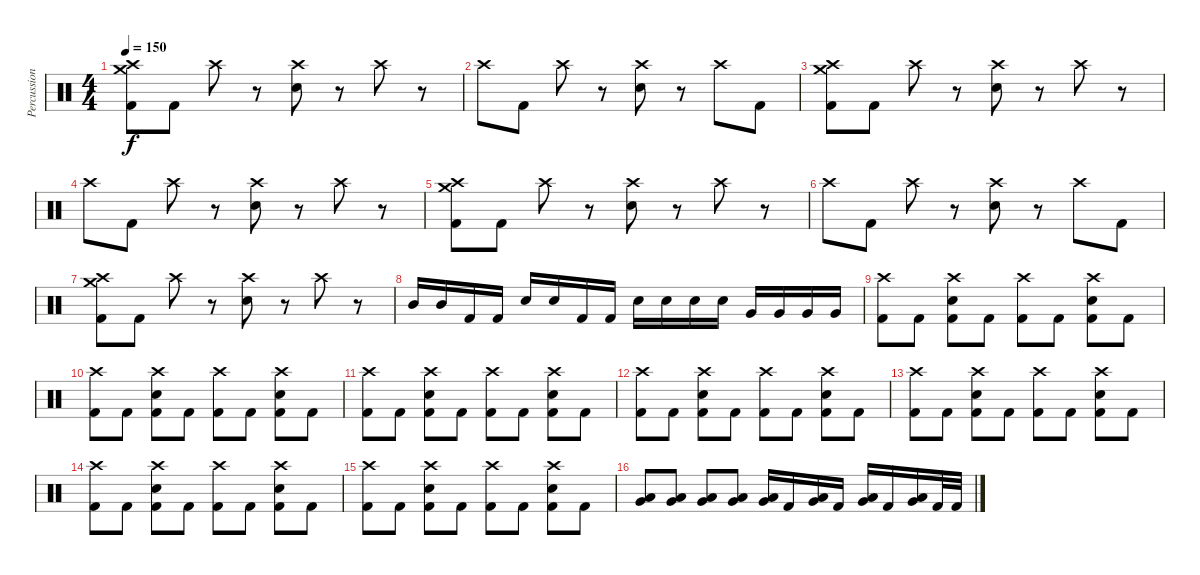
\track ("Percussion" "Percussion") {instrument percussion}
\staff {score}
\articulation defaults
\ts (4 4)
\section ("" "")
\tempo 150
\clef neutral
\ks c
("Crash high (hit)" "Crash medium (hit)" "Kick (hit) 2").8{dy f} "Kick (hit) 2".8 "Crash high (hit)".8 r.8 ("Crash high (hit)" "Snare (hit) 2").8 r.8 "Crash high (hit)".8 r.8 |
"Crash high (hit)".8 "Kick (hit) 2".8 "Crash high (hit)".8 r.8 ("Crash high (hit)" "Snare (hit) 2").8 r.8 "Crash high (hit)".8 "Kick (hit) 2".8 |
("Crash high (hit)" "Crash medium (hit)" "Kick (hit) 2").8 "Kick (hit) 2".8 "Crash high (hit)".8 r.8 ("Crash high (hit)" "Snare (hit) 2").8 r.8 "Crash high (hit)".8 r.8 |
"Crash high (hit)".8 "Kick (hit) 2".8 "Crash high (hit)".8 r.8 ("Crash high (hit)" "Snare (hit) 2").8 r.8 "Crash high (hit)".8 r.8 |
("Crash high (hit)" "Crash medium (hit)" "Kick (hit) 2").8 "Kick (hit) 2".8 "Crash high (hit)".8 r.8 ("Crash high (hit)" "Snare (hit) 2").8 r.8 "Crash high (hit)".8 r.8 |
"Crash high (hit)".8 "Kick (hit) 2".8 "Crash high (hit)".8 r.8 ("Crash high (hit)" "Snare (hit) 2").8 r.8 "Crash high (hit)".8 "Kick (hit) 2".8 |
("Crash high (hit)" "Crash medium (hit)" "Kick (hit) 2").8 "Kick (hit) 2".8 "Crash high (hit)".8 r.8 ("Crash high (hit)" "Snare (hit) 2").8 r.8 "Crash high (hit)".8 r.8 |
"Mid Tom (hit)".16 "Mid Tom (hit)".16 "Kick (hit) 2".16 "Kick (hit) 2".16 "Snare (hit) 2".16 "Snare (hit) 2".16 "Kick (hit) 2".16 "Kick (hit) 2".16 "Snare (hit) 2".16 "Snare (hit) 2".16 "Snare (hit) 2".16 "Snare (hit) 2".16 "Very Low Tom (hit)".16 "Very Low Tom (hit)".16 "Very Low Tom (hit)".16 "Very Low Tom (hit)".16 |
("Crash high (hit)" "Kick (hit) 2").8 "Kick (hit) 2".8 ("Crash high (hit)" "Snare (hit) 2" "Kick (hit) 2").8 "Kick (hit) 2".8 ("Crash high (hit)" "Kick (hit) 2").8 "Kick (hit) 2".8 ("Crash high (hit)" "Snare (hit) 2" "Kick (hit) 2").8 "Kick (hit) 2".8 |
("Crash high (hit)" "Kick (hit) 2").8 "Kick (hit) 2".8 ("Crash high (hit)" "Snare (hit) 2" "Kick (hit) 2").8 "Kick (hit) 2".8 ("Crash high (hit)" "Kick (hit) 2").8 "Kick (hit) 2".8 ("Crash high (hit)" "Snare (hit) 2" "Kick (hit) 2").8 "Kick (hit) 2".8 |
("Crash high (hit)" "Kick (hit) 2").8 "Kick (hit) 2".8 ("Crash high (hit)" "Snare (hit) 2" "Kick (hit) 2").8 "Kick (hit) 2".8 ("Crash high (hit)" "Kick (hit) 2").8 "Kick (hit) 2".8 ("Crash high (hit)" "Snare (hit) 2" "Kick (hit) 2").8 "Kick (hit) 2".8 |
("Crash high (hit)" "Kick (hit) 2").8 "Kick (hit) 2".8 ("Crash high (hit)" "Snare (hit) 2" "Kick (hit) 2").8 "Kick (hit) 2".8 ("Crash high (hit)" "Kick (hit) 2").8 "Kick (hit) 2".8 ("Crash high (hit)" "Snare (hit) 2" "Kick (hit) 2").8 "Kick (hit) 2".8 |
("Crash high (hit)" "Kick (hit) 2").8 "Kick (hit) 2".8 ("Crash high (hit)" "Snare (hit) 2" "Kick (hit) 2").8 "Kick (hit) 2".8 ("Crash high (hit)" "Kick (hit) 2").8 "Kick (hit) 2".8 ("Crash high (hit)" "Snare (hit) 2" "Kick (hit) 2").8 "Kick (hit) 2".8 |
("Crash high (hit)" "Kick (hit) 2").8 "Kick (hit) 2".8 ("Crash high (hit)" "Snare (hit) 2" "Kick (hit) 2").8 "Kick (hit) 2".8 ("Crash high (hit)" "Kick (hit) 2").8 "Kick (hit) 2".8 ("Crash high (hit)" "Snare (hit) 2" "Kick (hit) 2").8 "Kick (hit) 2".8 |
("Crash high (hit)" "Kick (hit) 2").8 "Kick (hit) 2".8 ("Crash high (hit)" "Snare (hit) 2" "Kick (hit) 2").8 "Kick (hit) 2".8 ("Crash high (hit)" "Kick (hit) 2").8 "Kick (hit) 2".8 ("Crash high (hit)" "Snare (hit) 2" "Kick (hit) 2").8 "Kick (hit) 2".8 |
("Low Tom (hit)" "Very Low Tom (hit)").8 ("Low Tom (hit)" "Very Low Tom (hit)").8 ("Low Tom (hit)" "Very Low Tom (hit)").8 ("Low Tom (hit)" "Very Low Tom (hit)").8 ("Low Tom (hit)" "Very Low Tom (hit)").16 "Kick (hit) 2".16 ("Low Tom (hit)" "Very Low Tom (hit)").16 "Kick (hit) 2".16 ("Low Tom (hit)" "Very Low Tom (hit)").16 "Kick (hit) 2".16 ("Low Tom (hit)" "Very Low Tom (hit)").16 "Kick (hit) 2".32 "Kick (hit) 2".32
